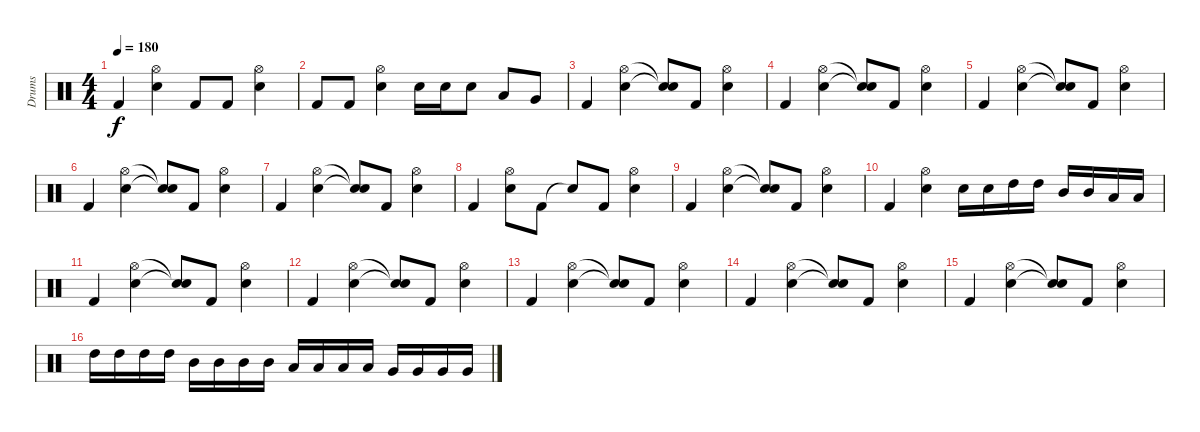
\track ("Drums" "Drums") {instrument percussion}
\staff {score}
\articulation defaults
\ts (4 4)
\tempo 180
\clef neutral
\ks c "Kick (hit) 2".4{dy f}
("Hi-Hat (open)" "Electric Snare (hit)").4 "Kick (hit) 2".8 "Kick (hit) 2".8 ("Hi-Hat (open)" "Electric Snare (hit)").4 |
"Kick (hit) 2".8 "Kick (hit) 2".8 ("Hi-Hat (open)" "Electric Snare (hit)").4 "Electric Snare (hit)".16 "Electric Snare (hit)".16 "Electric Snare (hit)".8 "Low Tom (hit)".8 "Very Low Tom (hit)".8 |
"Kick (hit) 2".4 ("Hi-Hat (open)" "Electric Snare (hit)").4 ("Snare (hit)"{t} "Snare (hit)"{t}).8 "Kick (hit) 2".8 ("Hi-Hat (open)" "Electric Snare (hit)").4 |
"Kick (hit) 2".4 ("Hi-Hat (open)" "Electric Snare (hit)").4 ("Snare (hit)"{t} "Snare (hit)"{t}).8 "Kick (hit) 2".8 ("Hi-Hat (open)" "Electric Snare (hit)").4 |
"Kick (hit) 2".4 ("Hi-Hat (open)" "Electric Snare (hit)").4 ("Snare (hit)"{t} "Snare (hit)"{t}).8 "Kick (hit) 2".8 ("Hi-Hat (open)" "Electric Snare (hit)").4 |
"Kick (hit) 2".4 ("Hi-Hat (open)" "Electric Snare (hit)").4 ("Snare (hit)"{t} "Snare (hit)"{t}).8 "Kick (hit) 2".8 ("Hi-Hat (open)" "Electric Snare (hit)").4 |
"Kick (hit) 2".4 ("Hi-Hat (open)" "Electric Snare (hit)").4 ("Snare (hit)"{t} "Snare (hit)"{t}).8 "Kick (hit) 2".8 ("Hi-Hat (open)" "Electric Snare (hit)").4 |
"Kick (hit) 2".4 ("Hi-Hat (open)" "Electric Snare (hit)").8 "Kick (hit) 2".8 "Snare (hit)"{t}.8 "Kick (hit) 2".8 ("Hi-Hat (open)" "Electric Snare (hit)").4 |
"Kick (hit) 2".4 ("Hi-Hat (open)" "Electric Snare (hit)").4 ("Snare (hit)"{t} "Snare (hit)"{t}).8 "Kick (hit) 2".8 ("Hi-Hat (open)" "Electric Snare (hit)").4 |
"Kick (hit) 2".4 ("Hi-Hat (open)" "Electric Snare (hit)").4 "Electric Snare (hit)".16 "Electric Snare (hit)".16 "High Tom (hit)".16 "High Tom (hit)".16 "Mid Tom (hit)".16 "Mid Tom (hit)".16 "Low Tom (hit)".16 "Low Tom (hit)".16 |
"Kick (hit) 2".4 ("Hi-Hat (open)" "Electric Snare (hit)").4 ("Snare (hit)"{t} "Snare (hit)"{t}).8 "Kick (hit) 2".8 ("Hi-Hat (open)" "Electric Snare (hit)").4 |
"Kick (hit) 2".4 ("Hi-Hat (open)" "Electric Snare (hit)").4 ("Snare (hit)"{t} "Snare (hit)"{t}).8 "Kick (hit) 2".8 ("Hi-Hat (open)" "Electric Snare (hit)").4 |
"Kick (hit) 2".4 ("Hi-Hat (open)" "Electric Snare (hit)").4 ("Snare (hit)"{t} "Snare (hit)"{t}).8 "Kick (hit) 2".8 ("Hi-Hat (open)" "Electric Snare (hit)").4 |
"Kick (hit) 2".4 ("Hi-Hat (open)" "Electric Snare (hit)").4 ("Snare (hit)"{t} "Snare (hit)"{t}).8 "Kick (hit) 2".8 ("Hi-Hat (open)" "Electric Snare (hit)").4 |
"Kick (hit) 2".4 ("Hi-Hat (open)" "Electric Snare (hit)").4 ("Snare (hit)"{t} "Snare (hit)"{t}).8 "Kick (hit) 2".8 ("Hi-Hat (open)" "Electric Snare (hit)").4 |
"High Tom (hit)".16 "High Tom (hit)".16 "High Tom (hit)".16 "High Tom (hit)".16 "Mid Tom (hit)".16 "Mid Tom (hit)".16 "Mid Tom (hit)".16 "Mid Tom (hit)".16 "Low Tom (hit)".16 "Low Tom (hit)".16 "Low Tom (hit)".16 "Low Tom (hit)".16 "Very Low Tom (hit)".16 "Very Low Tom (hit)".16 "Very Low Tom (hit)".16 "Very Low Tom (hit)".16
